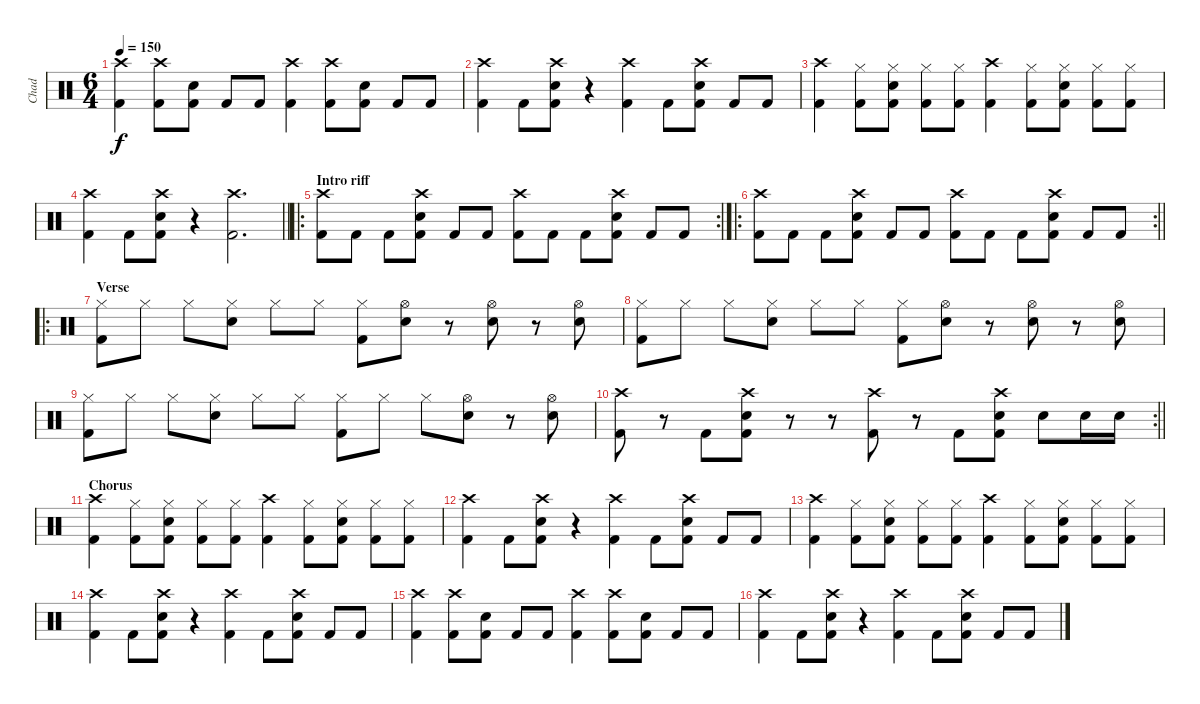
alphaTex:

\track ("Chad" "Chad") {instrument percussion}
\staff {score}
\articulation defaults
\ts (6 4)
\tempo 150
\clef neutral
\ks c
("Crash high (hit)" "Kick (hit) 2").4{dy f} ("Crash high (hit)" "Kick (hit) 2").8 ("Electric Snare (hit)" "Kick (hit) 2").8 "Kick (hit) 2".8 "Kick (hit) 2".8 ("Crash high (hit)" "Kick (hit) 2").4 ("Crash high (hit)" "Kick (hit) 2").8 ("Electric Snare (hit)" "Kick (hit) 2").8 "Kick (hit) 2".8 "Kick (hit) 2".8 |
("Crash high (hit)" "Kick (hit) 2").4 "Kick (hit) 2".8 ("Crash high (hit)" "Electric Snare (hit)" "Kick (hit) 2").8 r.4 ("Crash high (hit)" "Kick (hit) 2").4 "Kick (hit) 2".8 ("Crash high (hit)" "Electric Snare (hit)" "Kick (hit) 2").8 "Kick (hit) 2".8 "Kick (hit) 2".8 |
("Crash high (hit)" "Kick (hit) 2").4 ("Hi-Hat (closed)" "Kick (hit) 2").8 ("Hi-Hat (closed)" "Electric Snare (hit)" "Kick (hit) 2").8 ("Hi-Hat (closed)" "Kick (hit) 2").8 ("Hi-Hat (closed)" "Kick (hit) 2").8 ("Crash high (hit)" "Kick (hit) 2").4 ("Hi-Hat (closed)" "Kick (hit) 2").8 ("Hi-Hat (closed)" "Electric Snare (hit)" "Kick (hit) 2").8 ("Hi-Hat (closed)" "Kick (hit) 2").8 ("Hi-Hat (closed)" "Kick (hit) 2").8 |
\barLineRight lightlight
("Crash high (hit)" "Kick (hit) 2").4 "Kick (hit) 2".8 ("Crash high (hit)" "Electric Snare (hit)" "Kick (hit) 2").8 r.4 ("Crash high (hit)" "Kick (hit) 2").2{d} |
\ro
\rc 2
\section ("" "Intro riff")
("Crash high (hit)" "Kick (hit) 2").8 "Kick (hit) 2".8 "Kick (hit) 2".8 ("Crash high (hit)" "Electric Snare (hit)" "Kick (hit) 2").8 "Kick (hit) 2".8 "Kick (hit) 2".8 ("Crash high (hit)" "Kick (hit) 2").8 "Kick (hit) 2".8 "Kick (hit) 2".8 ("Crash high (hit)" "Electric Snare (hit)" "Kick (hit) 2").8 "Kick (hit) 2".8 "Kick (hit) 2".8 |
\ro
\rc 2
\barLineRight lightlight
("Crash high (hit)" "Kick (hit) 2").8 "Kick (hit) 2".8 "Kick (hit) 2".8 ("Crash high (hit)" "Electric Snare (hit)" "Kick (hit) 2").8 "Kick (hit) 2".8 "Kick (hit) 2".8 ("Crash high (hit)" "Kick (hit) 2").8 "Kick (hit) 2".8 "Kick (hit) 2".8 ("Crash high (hit)" "Electric Snare (hit)" "Kick (hit) 2").8 "Kick (hit) 2".8 "Kick (hit) 2".8 |
\ro
\section ("" "Verse")
("Hi-Hat (closed)" "Kick (hit) 2").8 "Hi-Hat (closed)".8 "Hi-Hat (closed)".8 ("Hi-Hat (closed)" "Electric Snare (hit)").8 "Hi-Hat (closed)".8 "Hi-Hat (closed)".8 ("Hi-Hat (closed)" "Kick (hit) 2").8 ("Hi-Hat (open)" "Electric Snare (hit)").8 r.8 ("Hi-Hat (open)" "Electric Snare (hit)").8 r.8 ("Hi-Hat (open)" "Electric Snare (hit)").8 |
("Hi-Hat (closed)" "Kick (hit) 2").8 "Hi-Hat (closed)".8 "Hi-Hat (closed)".8 ("Hi-Hat (closed)" "Electric Snare (hit)").8 "Hi-Hat (closed)".8 "Hi-Hat (closed)".8 ("Hi-Hat (closed)" "Kick (hit) 2").8 ("Hi-Hat (open)" "Electric Snare (hit)").8 r.8 ("Hi-Hat (open)" "Electric Snare (hit)").8 r.8 ("Hi-Hat (open)" "Electric Snare (hit)").8 |
("Hi-Hat (closed)" "Kick (hit) 2").8 "Hi-Hat (closed)".8 "Hi-Hat (closed)".8 ("Hi-Hat (closed)" "Electric Snare (hit)").8 "Hi-Hat (closed)".8 "Hi-Hat (closed)".8 ("Hi-Hat (closed)" "Kick (hit) 2").8 "Hi-Hat (closed)".8 "Hi-Hat (closed)".8 ("Hi-Hat (open)" "Electric Snare (hit)").8 r.8 ("Hi-Hat (open)" "Electric Snare (hit)").8 |
\rc 2
\barLineRight lightlight
("Crash high (hit)" "Kick (hit) 2").8 r.8 "Kick (hit) 2".8 ("Crash high (hit)" "Electric Snare (hit)" "Kick (hit) 2").8 r.8 r.8 ("Crash high (hit)" "Kick (hit) 2").8 r.8 "Kick (hit) 2".8 ("Crash high (hit)" "Electric Snare (hit)" "Kick (hit) 2").8 "Electric Snare (hit)".8 "Electric Snare (hit)".16 "Electric Snare (hit)".16 |
\section ("" "Chorus")
("Crash high (hit)" "Kick (hit) 2").4 ("Hi-Hat (closed)" "Kick (hit) 2").8 ("Hi-Hat (closed)" "Electric Snare (hit)" "Kick (hit) 2").8 ("Hi-Hat (closed)" "Kick (hit) 2").8 ("Hi-Hat (closed)" "Kick (hit) 2").8 ("Crash high (hit)" "Kick (hit) 2").4 ("Hi-Hat (closed)" "Kick (hit) 2").8 ("Hi-Hat (closed)" "Electric Snare (hit)" "Kick (hit) 2").8 ("Hi-Hat (closed)" "Kick (hit) 2").8 ("Hi-Hat (closed)" "Kick (hit) 2").8 |
("Crash high (hit)" "Kick (hit) 2").4 "Kick (hit) 2".8 ("Crash high (hit)" "Electric Snare (hit)" "Kick (hit) 2").8 r.4 ("Crash high (hit)" "Kick (hit) 2").4 "Kick (hit) 2".8 ("Crash high (hit)" "Electric Snare (hit)" "Kick (hit) 2").8 "Kick (hit) 2".8 "Kick (hit) 2".8 |
("Crash high (hit)" "Kick (hit) 2").4 ("Hi-Hat (closed)" "Kick (hit) 2").8 ("Hi-Hat (closed)" "Electric Snare (hit)" "Kick (hit) 2").8 ("Hi-Hat (closed)" "Kick (hit) 2").8 ("Hi-Hat (closed)" "Kick (hit) 2").8 ("Crash high (hit)" "Kick (hit) 2").4 ("Hi-Hat (closed)" "Kick (hit) 2").8 ("Hi-Hat (closed)" "Electric Snare (hit)" "Kick (hit) 2").8 ("Hi-Hat (closed)" "Kick (hit) 2").8 ("Hi-Hat (closed)" "Kick (hit) 2").8 |
("Crash high (hit)" "Kick (hit) 2").4 "Kick (hit) 2".8 ("Crash high (hit)" "Electric Snare (hit)" "Kick (hit) 2").8 r.4 ("Crash high (hit)" "Kick (hit) 2").4 "Kick (hit) 2".8 ("Crash high (hit)" "Electric Snare (hit)" "Kick (hit) 2").8 "Kick (hit) 2".8 "Kick (hit) 2".8 |
("Crash high (hit)" "Kick (hit) 2").4 ("Crash high (hit)" "Kick (hit) 2").8 ("Electric Snare (hit)" "Kick (hit) 2").8 "Kick (hit) 2".8 "Kick (hit) 2".8 ("Crash high (hit)" "Kick (hit) 2").4 ("Crash high (hit)" "Kick (hit) 2").8 ("Electric Snare (hit)" "Kick (hit) 2").8 "Kick (hit) 2".8 "Kick (hit) 2".8 |
("Crash high (hit)" "Kick (hit) 2").4 "Kick (hit) 2".8 ("Crash high (hit)" "Electric Snare (hit)" "Kick (hit) 2").8 r.4 ("Crash high (hit)" "Kick (hit) 2").4 "Kick (hit) 2".8 ("Crash high (hit)" "Electric Snare (hit)" "Kick (hit) 2").8 "Kick (hit) 2".8 "Kick (hit) 2".8
